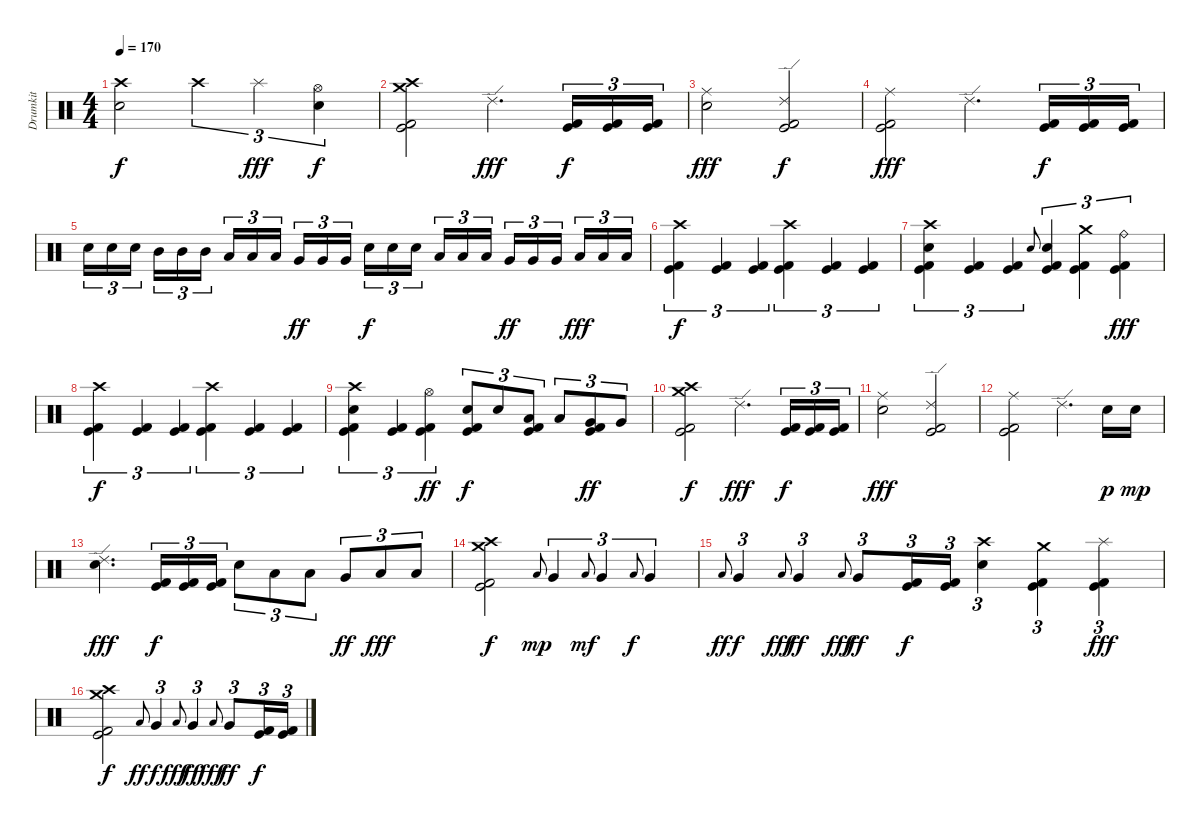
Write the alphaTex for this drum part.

\track ("Drumkit" "Drumkit") {instrument percussion}
\staff {score}
\articulation defaults
\ts (4 4)
\tempo 170
\clef neutral
\ks c
("Crash high (hit)" "Electric Snare (hit)").2{dy f} "Crash high (hit)".4{tu (3 2)} "Splash (hit)".4{tu (3 2) dy fff} ("Hi-Hat (open)" "Electric Snare (hit)").4{tu (3 2) dy f} |
("Crash high (hit)" "Crash medium (hit)" "Kick (hit)" "Kick (hit) 2").2 "Ride (edge) 2".4{d dy fff} ("Kick (hit)" "Kick (hit) 2").16{tu (3 2) dy f} ("Kick (hit)" "Kick (hit) 2").16{tu (3 2)} ("Kick (hit)" "Kick (hit) 2").16{tu (3 2)} |
("Ride (middle)" "Electric Snare (hit)").2{dy fff} ("Ride (edge) 2" "Kick (hit)" "Kick (hit) 2").2{dy f} |
("Ride (middle)" "Kick (hit)" "Kick (hit) 2").2{dy fff} "Ride (edge) 2".4{d} ("Kick (hit)" "Kick (hit) 2").16{tu (3 2) dy f} ("Kick (hit)" "Kick (hit) 2").16{tu (3 2)} ("Kick (hit)" "Kick (hit) 2").16{tu (3 2)} |
"Electric Snare (hit)".16{tu (3 2)} "Electric Snare (hit)".16{tu (3 2)} "Electric Snare (hit)".16{tu (3 2) beam splitsecondary} "Mid Tom (hit)".16{tu (3 2)} "Mid Tom (hit)".16{tu (3 2)} "Mid Tom (hit)".16{tu (3 2)} "Low Tom (hit)".16{tu (3 2)} "Low Tom (hit)".16{tu (3 2)} "Low Tom (hit)".16{tu (3 2) beam splitsecondary} "Very Low Tom (hit)".16{tu (3 2) dy ff} "Very Low Tom (hit)".16{tu (3 2)} "Very Low Tom (hit)".16{tu (3 2)} "Electric Snare (hit)".16{tu (3 2) dy f} "Electric Snare (hit)".16{tu (3 2)} "Electric Snare (hit)".16{tu (3 2) beam splitsecondary} "Low Tom (hit)".16{tu (3 2)} "Low Tom (hit)".16{tu (3 2)} "Low Tom (hit)".16{tu (3 2)} "Very Low Tom (hit)".16{tu (3 2) dy ff} "Very Low Tom (hit)".16{tu (3 2)} "Very Low Tom (hit)".16{tu (3 2) beam splitsecondary} "Low Floor Tom (hit)".16{tu (3 2) dy fff} "Low Floor Tom (hit)".16{tu (3 2)} "Low Floor Tom (hit)".16{tu (3 2)} |
("Crash high (hit)" "Kick (hit)" "Kick (hit) 2").4{tu (3 2) dy f} ("Kick (hit)" "Kick (hit) 2").4{tu (3 2)} ("Kick (hit)" "Kick (hit) 2").4{tu (3 2)} ("Crash high (hit)" "Kick (hit)" "Kick (hit) 2").4{tu (3 2)} ("Kick (hit)" "Kick (hit) 2").4{tu (3 2)} ("Kick (hit)" "Kick (hit) 2").4{tu (3 2)} |
("Crash high (hit)" "Electric Snare (hit)" "Kick (hit)" "Kick (hit) 2").4{tu (3 2)} ("Kick (hit)" "Kick (hit) 2").4{tu (3 2)} ("Kick (hit)" "Kick (hit) 2").4{tu (3 2)} "Electric Snare (hit)".8{gr onbeat} ("Electric Snare (hit)" "Kick (hit)" "Kick (hit) 2").4{tu (3 2)} ("Crash medium (hit)" "Kick (hit)" "Kick (hit) 2").4{tu (3 2)} ("Ride (bell)" "Kick (hit)" "Kick (hit) 2").4{tu (3 2) dy fff} |
("Crash high (hit)" "Kick (hit)" "Kick (hit) 2").4{tu (3 2) dy f} ("Kick (hit)" "Kick (hit) 2").4{tu (3 2)} ("Kick (hit)" "Kick (hit) 2").4{tu (3 2)} ("Crash high (hit)" "Kick (hit)" "Kick (hit) 2").4{tu (3 2)} ("Kick (hit)" "Kick (hit) 2").4{tu (3 2)} ("Kick (hit)" "Kick (hit) 2").4{tu (3 2)} |
("Crash high (hit)" "Electric Snare (hit)" "Kick (hit)" "Kick (hit) 2").4{tu (3 2)} ("Kick (hit)" "Kick (hit) 2").4{tu (3 2)} ("Hi-Hat (open)" "Kick (hit)" "Kick (hit) 2").4{tu (3 2) dy ff} ("Electric Snare (hit)" "Kick (hit)" "Kick (hit) 2").8{tu (3 2) dy f} "Electric Snare (hit)".8{tu (3 2)} ("Low Tom (hit)" "Kick (hit)" "Kick (hit) 2").8{tu (3 2)} "Low Tom (hit)".8{tu (3 2)} ("Very Low Tom (hit)" "Kick (hit)" "Kick (hit) 2").8{tu (3 2) dy ff} "Very Low Tom (hit)".8{tu (3 2)} |
("Crash high (hit)" "Crash medium (hit)" "Kick (hit)" "Kick (hit) 2").2{dy f} "Ride (edge) 2".4{d dy fff} ("Kick (hit)" "Kick (hit) 2").16{tu (3 2) dy f} ("Kick (hit)" "Kick (hit) 2").16{tu (3 2)} ("Kick (hit)" "Kick (hit) 2").16{tu (3 2)} |
("Ride (middle)" "Electric Snare (hit)").2{dy fff} ("Ride (edge) 2" "Kick (hit)" "Kick (hit) 2").2 |
("Ride (middle)" "Kick (hit)" "Kick (hit) 2").2 "Ride (edge) 2".4{d} "Electric Snare (hit)".16{dy p} "Electric Snare (hit)".16{dy mp} |
("Ride (edge) 2" "Electric Snare (hit)").4{d dy fff} ("Kick (hit)" "Kick (hit) 2").16{tu (3 2) dy f} ("Kick (hit)" "Kick (hit) 2").16{tu (3 2)} ("Kick (hit)" "Kick (hit) 2").16{tu (3 2)} "Electric Snare (hit)".8{tu (3 2)} "Low Tom (hit)".8{tu (3 2)} "Low Tom (hit)".8{tu (3 2)} "Very Low Tom (hit)".8{tu (3 2) dy ff} "Low Floor Tom (hit)".8{tu (3 2) dy fff} "Low Floor Tom (hit)".8{tu (3 2)} |
("Crash high (hit)" "Crash medium (hit)" "Kick (hit)" "Kick (hit) 2").2{dy f} "Low Floor Tom (hit)".8{gr onbeat dy mp} "Very Low Tom (hit)".4{tu (3 2)} "Low Floor Tom (hit)".8{gr onbeat dy mf} "Very Low Tom (hit)".4{tu (3 2)} "Low Floor Tom (hit)".8{gr onbeat dy f} "Very Low Tom (hit)".4{tu (3 2)} |
"Low Floor Tom (hit)".8{gr onbeat dy ff} "Very Low Tom (hit)".4{tu (3 2) dy f} "Low Floor Tom (hit)".8{gr onbeat dy fff} "Very Low Tom (hit)".4{tu (3 2) dy ff} "Low Floor Tom (hit)".8{gr onbeat dy fff} "Very Low Tom (hit)".8{tu (3 2) dy ff} ("Kick (hit)" "Kick (hit) 2").16{tu (3 2) dy f} ("Kick (hit)" "Kick (hit) 2").16{tu (3 2)} ("Crash high (hit)" "Electric Snare (hit)").4{tu (3 2)} ("Crash medium (hit)" "Kick (hit)" "Kick (hit) 2").4{tu (3 2)} ("Splash (hit)" "Kick (hit)" "Kick (hit) 2").4{tu (3 2) dy fff} |
("Crash high (hit)" "Crash medium (hit)" "Kick (hit)" "Kick (hit) 2").2{dy f} "Low Floor Tom (hit)".8{gr onbeat dy ff} "Very Low Tom (hit)".4{tu (3 2) dy f} "Low Floor Tom (hit)".8{gr onbeat dy fff} "Very Low Tom (hit)".4{tu (3 2) dy ff} "Low Floor Tom (hit)".8{gr onbeat dy fff} "Very Low Tom (hit)".8{tu (3 2) dy ff} ("Kick (hit)" "Kick (hit) 2").16{tu (3 2) dy f} ("Kick (hit)" "Kick (hit) 2").16{tu (3 2)}
